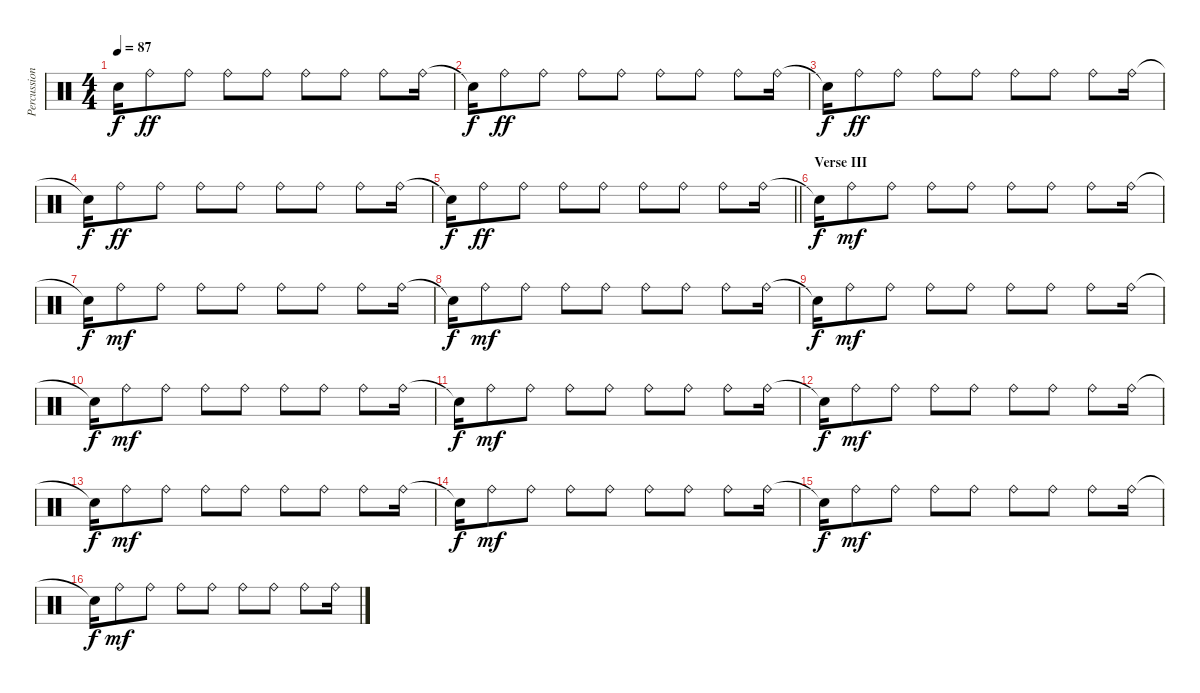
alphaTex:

\track ("Percussion" "Percussion") {instrument percussion}
\staff {score}
\articulation defaults
\ts (4 4)
\tempo 87
\clef neutral
\ks c "Snare (hit)"{t}.16{dy f} "Ride (bell)".8{dy ff} "Ride (bell)".8 "Ride (bell)".8 "Ride (bell)".8 "Ride (bell)".8 "Ride (bell)".8 "Ride (bell)".8 "Ride (bell)".16
|
"Snare (hit)"{t}.16{dy f} "Ride (bell)".8{dy ff} "Ride (bell)".8 "Ride (bell)".8 "Ride (bell)".8 "Ride (bell)".8 "Ride (bell)".8 "Ride (bell)".8 "Ride (bell)".16 |
"Snare (hit)"{t}.16{dy f} "Ride (bell)".8{dy ff} "Ride (bell)".8 "Ride (bell)".8 "Ride (bell)".8 "Ride (bell)".8 "Ride (bell)".8 "Ride (bell)".8 "Ride (bell)".16 |
"Snare (hit)"{t}.16{dy f} "Ride (bell)".8{dy ff} "Ride (bell)".8 "Ride (bell)".8 "Ride (bell)".8 "Ride (bell)".8 "Ride (bell)".8 "Ride (bell)".8 "Ride (bell)".16 |
\barLineRight lightlight "Snare (hit)"{t}.16{dy f} "Ride (bell)".8{dy ff} "Ride (bell)".8 "Ride (bell)".8 "Ride (bell)".8 "Ride (bell)".8 "Ride (bell)".8 "Ride (bell)".8 "Ride (bell)".16
|
\section ("" "Verse III")
"Snare (hit)"{t}.16{dy f} "Ride (bell)".8{dy mf} "Ride (bell)".8 "Ride (bell)".8 "Ride (bell)".8 "Ride (bell)".8 "Ride (bell)".8 "Ride (bell)".8 "Ride (bell)".16 |
"Snare (hit)"{t}.16{dy f} "Ride (bell)".8{dy mf} "Ride (bell)".8 "Ride (bell)".8 "Ride (bell)".8 "Ride (bell)".8 "Ride (bell)".8 "Ride (bell)".8 "Ride (bell)".16 |
"Snare (hit)"{t}.16{dy f} "Ride (bell)".8{dy mf} "Ride (bell)".8 "Ride (bell)".8 "Ride (bell)".8 "Ride (bell)".8 "Ride (bell)".8 "Ride (bell)".8 "Ride (bell)".16 |
"Snare (hit)"{t}.16{dy f} "Ride (bell)".8{dy mf} "Ride (bell)".8 "Ride (bell)".8 "Ride (bell)".8 "Ride (bell)".8 "Ride (bell)".8 "Ride (bell)".8 "Ride (bell)".16 |
"Snare (hit)"{t}.16{dy f} "Ride (bell)".8{dy mf} "Ride (bell)".8 "Ride (bell)".8 "Ride (bell)".8 "Ride (bell)".8 "Ride (bell)".8 "Ride (bell)".8 "Ride (bell)".16 |
"Snare (hit)"{t}.16{dy f} "Ride (bell)".8{dy mf} "Ride (bell)".8 "Ride (bell)".8 "Ride (bell)".8 "Ride (bell)".8 "Ride (bell)".8 "Ride (bell)".8 "Ride (bell)".16 |
"Snare (hit)"{t}.16{dy f} "Ride (bell)".8{dy mf} "Ride (bell)".8 "Ride (bell)".8 "Ride (bell)".8 "Ride (bell)".8 "Ride (bell)".8 "Ride (bell)".8 "Ride (bell)".16 |
"Snare (hit)"{t}.16{dy f} "Ride (bell)".8{dy mf} "Ride (bell)".8 "Ride (bell)".8 "Ride (bell)".8 "Ride (bell)".8 "Ride (bell)".8 "Ride (bell)".8 "Ride (bell)".16 |
"Snare (hit)"{t}.16{dy f} "Ride (bell)".8{dy mf} "Ride (bell)".8 "Ride (bell)".8 "Ride (bell)".8 "Ride (bell)".8 "Ride (bell)".8 "Ride (bell)".8 "Ride (bell)".16 |
"Snare (hit)"{t}.16{dy f} "Ride (bell)".8{dy mf} "Ride (bell)".8 "Ride (bell)".8 "Ride (bell)".8 "Ride (bell)".8 "Ride (bell)".8 "Ride (bell)".8 "Ride (bell)".16 |
"Snare (hit)"{t}.16{dy f} "Ride (bell)".8{dy mf} "Ride (bell)".8 "Ride (bell)".8 "Ride (bell)".8 "Ride (bell)".8 "Ride (bell)".8 "Ride (bell)".8 "Ride (bell)".16
